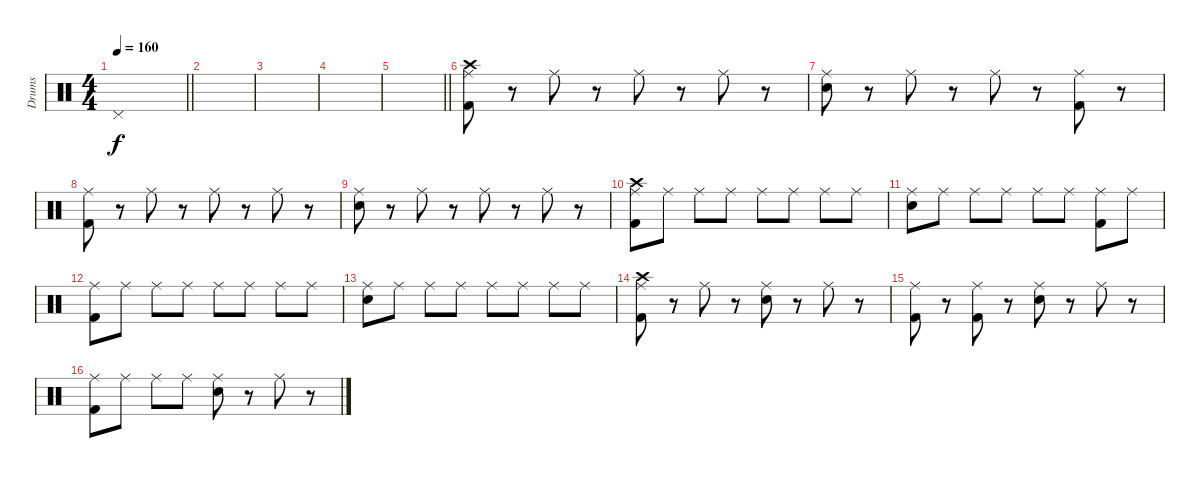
\track ("Drums" "Drums") {instrument percussion}
\staff {score}
\articulation defaults
\ts (4 4)
\tempo 160
\clef neutral
\barLineRight lightlight
\ks c "Pedal Hi-Hat (hit)".1{dy f}
|
\section ("" "")
|
|
|
\barLineRight lightlight
|
\section ("" "")
("Crash high (hit)" "Ride (middle)" "Kick (hit) 2").8 r.8 "Ride (middle)".8 r.8 "Ride (middle)".8 r.8 "Ride (middle)".8 r.8 |
("Ride (middle)" "Electric Snare (hit)").8 r.8 "Ride (middle)".8 r.8 "Ride (middle)".8 r.8 ("Ride (middle)" "Kick (hit) 2").8 r.8 |
("Ride (middle)" "Kick (hit) 2").8 r.8 "Ride (middle)".8 r.8 "Ride (middle)".8 r.8 "Ride (middle)".8 r.8 |
("Ride (middle)" "Electric Snare (hit)").8 r.8 "Ride (middle)".8 r.8 "Ride (middle)".8 r.8 "Ride (middle)".8 r.8 |
("Crash high (hit)" "Ride (middle)" "Kick (hit) 2").8 "Ride (middle)".8 "Ride (middle)".8 "Ride (middle)".8 "Ride (middle)".8 "Ride (middle)".8 "Ride (middle)".8 "Ride (middle)".8 |
("Ride (middle)" "Electric Snare (hit)").8 "Ride (middle)".8 "Ride (middle)".8 "Ride (middle)".8 "Ride (middle)".8 "Ride (middle)".8 ("Ride (middle)" "Kick (hit) 2").8 "Ride (middle)".8 |
("Ride (middle)" "Kick (hit) 2").8 "Ride (middle)".8 "Ride (middle)".8 "Ride (middle)".8 "Ride (middle)".8 "Ride (middle)".8 "Ride (middle)".8 "Ride (middle)".8 |
("Ride (middle)" "Electric Snare (hit)").8 "Ride (middle)".8 "Ride (middle)".8 "Ride (middle)".8 "Ride (middle)".8 "Ride (middle)".8 "Ride (middle)".8 "Ride (middle)".8 |
("Crash high (hit)" "Ride (middle)" "Kick (hit) 2").8 r.8 "Ride (middle)".8 r.8 ("Ride (middle)" "Electric Snare (hit)").8 r.8 "Ride (middle)".8 r.8 |
("Ride (middle)" "Kick (hit) 2").8 r.8 ("Ride (middle)" "Kick (hit) 2").8 r.8 ("Ride (middle)" "Electric Snare (hit)").8 r.8 "Ride (middle)".8 r.8 |
("Ride (middle)" "Kick (hit) 2").8 "Ride (middle)".8 "Ride (middle)".8 "Ride (middle)".8 ("Ride (middle)" "Electric Snare (hit)").8 r.8 "Ride (middle)".8 r.8
